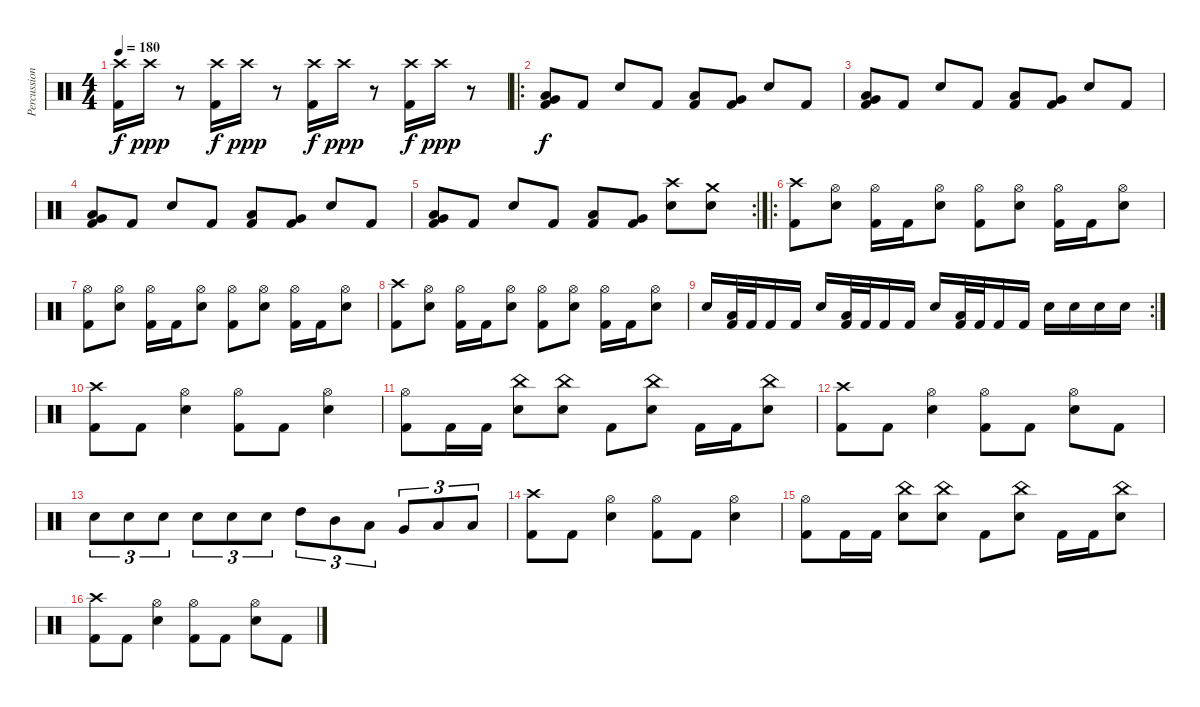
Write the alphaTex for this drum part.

\track ("Percussions" "Percussion") {instrument percussion}
\staff {score}
\articulation defaults
\ts (4 4)
\tempo 180
\clef neutral
\ks c
("Crash high (hit)" "Kick (hit) 2").16{dy f} "Crash high (hit)".16{dy ppp} r.8 ("Crash high (hit)" "Kick (hit) 2").16{dy f} "Crash high (hit)".16{dy ppp} r.8 ("Crash high (hit)" "Kick (hit) 2").16{dy f} "Crash high (hit)".16{dy ppp} r.8 ("Crash high (hit)" "Kick (hit) 2").16{dy f} "Crash high (hit)".16{dy ppp} r.8 |
\ro
("Very Low Tom (hit)" "Low Floor Tom (hit)" "Kick (hit) 2").8{bd 120 dy f} "Kick (hit) 2".8 "Snare (hit) 2".8 "Kick (hit) 2".8 ("Low Tom (hit)" "Kick (hit) 2").8 ("Very Low Tom (hit)" "Kick (hit) 2").8 "Snare (hit) 2".8 "Kick (hit) 2".8 |
("Very Low Tom (hit)" "Low Floor Tom (hit)" "Kick (hit) 2").8{bd 120} "Kick (hit) 2".8 "Snare (hit) 2".8 "Kick (hit) 2".8 ("Low Tom (hit)" "Kick (hit) 2").8 ("Very Low Tom (hit)" "Kick (hit) 2").8 "Snare (hit) 2".8 "Kick (hit) 2".8 |
("Very Low Tom (hit)" "Low Floor Tom (hit)" "Kick (hit) 2").8{bd 120} "Kick (hit) 2".8 "Snare (hit) 2".8 "Kick (hit) 2".8 ("Low Tom (hit)" "Kick (hit) 2").8 ("Very Low Tom (hit)" "Kick (hit) 2").8 "Snare (hit) 2".8 "Kick (hit) 2".8 |
\rc 2
("Very Low Tom (hit)" "Low Floor Tom (hit)" "Kick (hit) 2").8{bd 120} "Kick (hit) 2".8 "Snare (hit) 2".8 "Kick (hit) 2".8 ("Low Tom (hit)" "Kick (hit) 2").8 ("Very Low Tom (hit)" "Kick (hit) 2").8 ("Crash high (hit)" "Snare (hit) 2").8 ("Crash medium (hit)" "Snare (hit) 2").8 |
\ro
("Crash high (hit)" "Kick (hit) 2").8 ("Hi-Hat (open)" "Snare (hit) 2").8 ("Hi-Hat (open)" "Kick (hit) 2").16 "Kick (hit) 2".16 ("Hi-Hat (open)" "Snare (hit) 2").8 ("Hi-Hat (open)" "Kick (hit) 2").8 ("Hi-Hat (open)" "Snare (hit) 2").8 ("Hi-Hat (open)" "Kick (hit) 2").16 "Kick (hit) 2".16 ("Hi-Hat (open)" "Snare (hit) 2").8 |
("Hi-Hat (open)" "Kick (hit) 2").8 ("Hi-Hat (open)" "Snare (hit) 2").8 ("Hi-Hat (open)" "Kick (hit) 2").16 "Kick (hit) 2".16 ("Hi-Hat (open)" "Snare (hit) 2").8 ("Hi-Hat (open)" "Kick (hit) 2").8 ("Hi-Hat (open)" "Snare (hit) 2").8 ("Hi-Hat (open)" "Kick (hit) 2").16 "Kick (hit) 2".16 ("Hi-Hat (open)" "Snare (hit) 2").8 |
("Crash high (hit)" "Kick (hit) 2").8 ("Hi-Hat (open)" "Snare (hit) 2").8 ("Hi-Hat (open)" "Kick (hit) 2").16 "Kick (hit) 2".16 ("Hi-Hat (open)" "Snare (hit) 2").8 ("Hi-Hat (open)" "Kick (hit) 2").8 ("Hi-Hat (open)" "Snare (hit) 2").8 ("Hi-Hat (open)" "Kick (hit) 2").16 "Kick (hit) 2".16 ("Hi-Hat (open)" "Snare (hit) 2").8 |
\rc 2 "Snare (hit) 2".16
("Low Floor Tom (hit)" "Kick (hit) 2").32 "Kick (hit) 2".32 "Kick (hit) 2".16 "Kick (hit) 2".16 "Snare (hit) 2".16 ("Low Floor Tom (hit)" "Kick (hit) 2").32 "Kick (hit) 2".32 "Kick (hit) 2".16 "Kick (hit) 2".16 "Snare (hit) 2".16 ("Low Floor Tom (hit)" "Kick (hit) 2").32 "Kick (hit) 2".32 "Kick (hit) 2".16 "Kick (hit) 2".16 "Snare (hit) 2".16 "Snare (hit) 2".16 "Snare (hit) 2".16 "Snare (hit) 2".16 |
("Crash high (hit)" "Kick (hit) 2").8 "Kick (hit) 2".8 ("Hi-Hat (open)" "Snare (hit) 2").4 ("Hi-Hat (open)" "Kick (hit) 2").8 "Kick (hit) 2".8 ("Hi-Hat (open)" "Snare (hit) 2").4 |
("Hi-Hat (open)" "Kick (hit) 2").8 "Kick (hit) 2".16 "Kick (hit) 2".16 ("China (hit)" "Snare (hit) 2").8 ("China (hit)" "Snare (hit) 2").8 "Kick (hit) 2".8 ("China (hit)" "Snare (hit) 2").8 "Kick (hit) 2".16 "Kick (hit) 2".16 ("China (hit)" "Snare (hit) 2").8 |
("Crash high (hit)" "Kick (hit) 2").8 "Kick (hit) 2".8 ("Hi-Hat (open)" "Snare (hit) 2").4 ("Hi-Hat (open)" "Kick (hit) 2").8 "Kick (hit) 2".8 ("Hi-Hat (open)" "Snare (hit) 2").8 "Kick (hit) 2".8 |
"Snare (hit) 2".8{tu (3 2)} "Snare (hit) 2".8{tu (3 2)} "Snare (hit) 2".8{tu (3 2)} "Snare (hit) 2".8{tu (3 2)} "Snare (hit) 2".8{tu (3 2)} "Snare (hit) 2".8{tu (3 2)} "High Tom (hit)".8{tu (3 2)} "Mid Tom (hit)".8{tu (3 2)} "Low Tom (hit)".8{tu (3 2)} "Very Low Tom (hit)".8{tu (3 2)} "Low Floor Tom (hit)".8{tu (3 2)} "Low Floor Tom (hit)".8{tu (3 2)} |
("Crash high (hit)" "Kick (hit) 2").8 "Kick (hit) 2".8 ("Hi-Hat (open)" "Snare (hit) 2").4 ("Hi-Hat (open)" "Kick (hit) 2").8 "Kick (hit) 2".8 ("Hi-Hat (open)" "Snare (hit) 2").4 |
("Hi-Hat (open)" "Kick (hit) 2").8 "Kick (hit) 2".16 "Kick (hit) 2".16 ("China (hit)" "Snare (hit) 2").8 ("China (hit)" "Snare (hit) 2").8 "Kick (hit) 2".8 ("China (hit)" "Snare (hit) 2").8 "Kick (hit) 2".16 "Kick (hit) 2".16 ("China (hit)" "Snare (hit) 2").8 |
("Crash high (hit)" "Kick (hit) 2").8 "Kick (hit) 2".8 ("Hi-Hat (open)" "Snare (hit) 2").4 ("Hi-Hat (open)" "Kick (hit) 2").8 "Kick (hit) 2".8 ("Hi-Hat (open)" "Snare (hit) 2").8 "Kick (hit) 2".8
